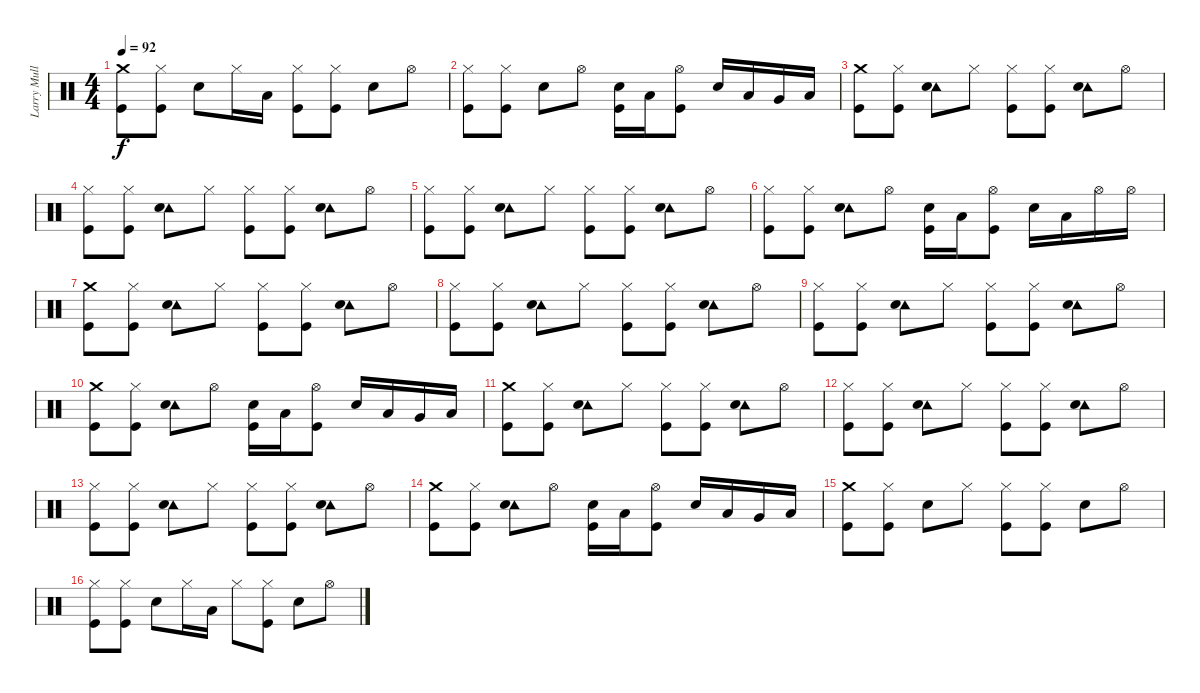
\track ("Larry Mullen Junior" "Larry Mull") {instrument percussion}
\staff {score}
\articulation defaults
\ts (4 4)
\tempo 92
\clef neutral
\ks c
("Crash medium (hit)" "Kick (hit)").8{dy f} ("Hi-Hat (closed)" "Kick (hit)").8 "Electric Snare (hit)".8 "Hi-Hat (closed)".16 "Low Floor Tom (hit)".16 ("Hi-Hat (closed)" "Kick (hit)").8 ("Hi-Hat (closed)" "Kick (hit)").8 "Electric Snare (hit)".8 "Hi-Hat (open)".8 |
("Hi-Hat (closed)" "Kick (hit)").8 ("Hi-Hat (closed)" "Kick (hit)").8 "Electric Snare (hit)".8 "Hi-Hat (open)".8 ("Electric Snare (hit)" "Kick (hit)").16 "Low Floor Tom (hit)".16 ("Hi-Hat (open)" "Kick (hit)").8 "Electric Snare (hit)".16 "Low Floor Tom (hit)".16 "Very Low Tom (hit)".16 "Low Floor Tom (hit)".16 |
("Crash medium (hit)" "Kick (hit)").8 ("Hi-Hat (closed)" "Kick (hit)").8 ("Tambourine (hit)" "Electric Snare (hit)").8 "Hi-Hat (closed)".8 ("Hi-Hat (closed)" "Kick (hit)").8 ("Hi-Hat (closed)" "Kick (hit)").8 ("Tambourine (hit)" "Electric Snare (hit)").8 "Hi-Hat (open)".8 |
("Hi-Hat (closed)" "Kick (hit)").8 ("Hi-Hat (closed)" "Kick (hit)").8 ("Tambourine (hit)" "Electric Snare (hit)").8 "Hi-Hat (closed)".8 ("Hi-Hat (closed)" "Kick (hit)").8 ("Hi-Hat (closed)" "Kick (hit)").8 ("Tambourine (hit)" "Electric Snare (hit)").8 "Hi-Hat (open)".8 |
("Hi-Hat (closed)" "Kick (hit)").8 ("Hi-Hat (closed)" "Kick (hit)").8 ("Tambourine (hit)" "Electric Snare (hit)").8 "Hi-Hat (closed)".8 ("Hi-Hat (closed)" "Kick (hit)").8 ("Hi-Hat (closed)" "Kick (hit)").8 ("Tambourine (hit)" "Electric Snare (hit)").8 "Hi-Hat (open)".8 |
("Hi-Hat (closed)" "Kick (hit)").8 ("Hi-Hat (closed)" "Kick (hit)").8 ("Tambourine (hit)" "Electric Snare (hit)").8 "Hi-Hat (open)".8 ("Electric Snare (hit)" "Kick (hit)").16 "Low Floor Tom (hit)".16 ("Hi-Hat (open)" "Kick (hit)").8 "Electric Snare (hit)".16 "Low Floor Tom (hit)".16 "Hi-Hat (open)".16 "Hi-Hat (open)".16 |
("Crash medium (hit)" "Kick (hit)").8 ("Hi-Hat (closed)" "Kick (hit)").8 ("Tambourine (hit)" "Electric Snare (hit)").8 "Hi-Hat (closed)".8 ("Hi-Hat (closed)" "Kick (hit)").8 ("Hi-Hat (closed)" "Kick (hit)").8 ("Tambourine (hit)" "Electric Snare (hit)").8 "Hi-Hat (open)".8 |
("Hi-Hat (closed)" "Kick (hit)").8 ("Hi-Hat (closed)" "Kick (hit)").8 ("Tambourine (hit)" "Electric Snare (hit)").8 "Hi-Hat (closed)".8 ("Hi-Hat (closed)" "Kick (hit)").8 ("Hi-Hat (closed)" "Kick (hit)").8 ("Tambourine (hit)" "Electric Snare (hit)").8 "Hi-Hat (open)".8 |
("Hi-Hat (closed)" "Kick (hit)").8 ("Hi-Hat (closed)" "Kick (hit)").8 ("Tambourine (hit)" "Electric Snare (hit)").8 "Hi-Hat (closed)".8 ("Hi-Hat (closed)" "Kick (hit)").8 ("Hi-Hat (closed)" "Kick (hit)").8 ("Tambourine (hit)" "Electric Snare (hit)").8 "Hi-Hat (open)".8 |
("Crash medium (hit)" "Kick (hit)").8 ("Hi-Hat (closed)" "Kick (hit)").8 ("Tambourine (hit)" "Electric Snare (hit)").8 "Hi-Hat (open)".8 ("Electric Snare (hit)" "Kick (hit)").16 "Low Floor Tom (hit)".16 ("Hi-Hat (open)" "Kick (hit)").8 "Electric Snare (hit)".16 "Low Floor Tom (hit)".16 "Very Low Tom (hit)".16 "Low Floor Tom (hit)".16 |
("Crash medium (hit)" "Kick (hit)").8 ("Hi-Hat (closed)" "Kick (hit)").8 ("Tambourine (hit)" "Electric Snare (hit)").8 "Hi-Hat (closed)".8 ("Hi-Hat (closed)" "Kick (hit)").8 ("Hi-Hat (closed)" "Kick (hit)").8 ("Tambourine (hit)" "Electric Snare (hit)").8 "Hi-Hat (open)".8 |
("Hi-Hat (closed)" "Kick (hit)").8 ("Hi-Hat (closed)" "Kick (hit)").8 ("Tambourine (hit)" "Electric Snare (hit)").8 "Hi-Hat (closed)".8 ("Hi-Hat (closed)" "Kick (hit)").8 ("Hi-Hat (closed)" "Kick (hit)").8 ("Tambourine (hit)" "Electric Snare (hit)").8 "Hi-Hat (open)".8 |
("Hi-Hat (closed)" "Kick (hit)").8 ("Hi-Hat (closed)" "Kick (hit)").8 ("Tambourine (hit)" "Electric Snare (hit)").8 "Hi-Hat (closed)".8 ("Hi-Hat (closed)" "Kick (hit)").8 ("Hi-Hat (closed)" "Kick (hit)").8 ("Tambourine (hit)" "Electric Snare (hit)").8 "Hi-Hat (open)".8 |
("Crash medium (hit)" "Kick (hit)").8 ("Hi-Hat (closed)" "Kick (hit)").8 ("Tambourine (hit)" "Electric Snare (hit)").8 "Hi-Hat (open)".8 ("Electric Snare (hit)" "Kick (hit)").16 "Low Floor Tom (hit)".16 ("Hi-Hat (open)" "Kick (hit)").8 "Electric Snare (hit)".16 "Low Floor Tom (hit)".16 "Very Low Tom (hit)".16 "Low Floor Tom (hit)".16 |
("Crash medium (hit)" "Kick (hit)").8 ("Hi-Hat (closed)" "Kick (hit)").8 "Electric Snare (hit)".8 "Hi-Hat (closed)".8 ("Hi-Hat (closed)" "Kick (hit)").8 ("Hi-Hat (closed)" "Kick (hit)").8 "Electric Snare (hit)".8 "Hi-Hat (open)".8 |
("Hi-Hat (closed)" "Kick (hit)").8 ("Hi-Hat (closed)" "Kick (hit)").8 "Electric Snare (hit)".8 "Hi-Hat (closed)".16 "Low Floor Tom (hit)".16 "Hi-Hat (closed)".8 ("Hi-Hat (closed)" "Kick (hit)").8 "Electric Snare (hit)".8 "Hi-Hat (open)".8
